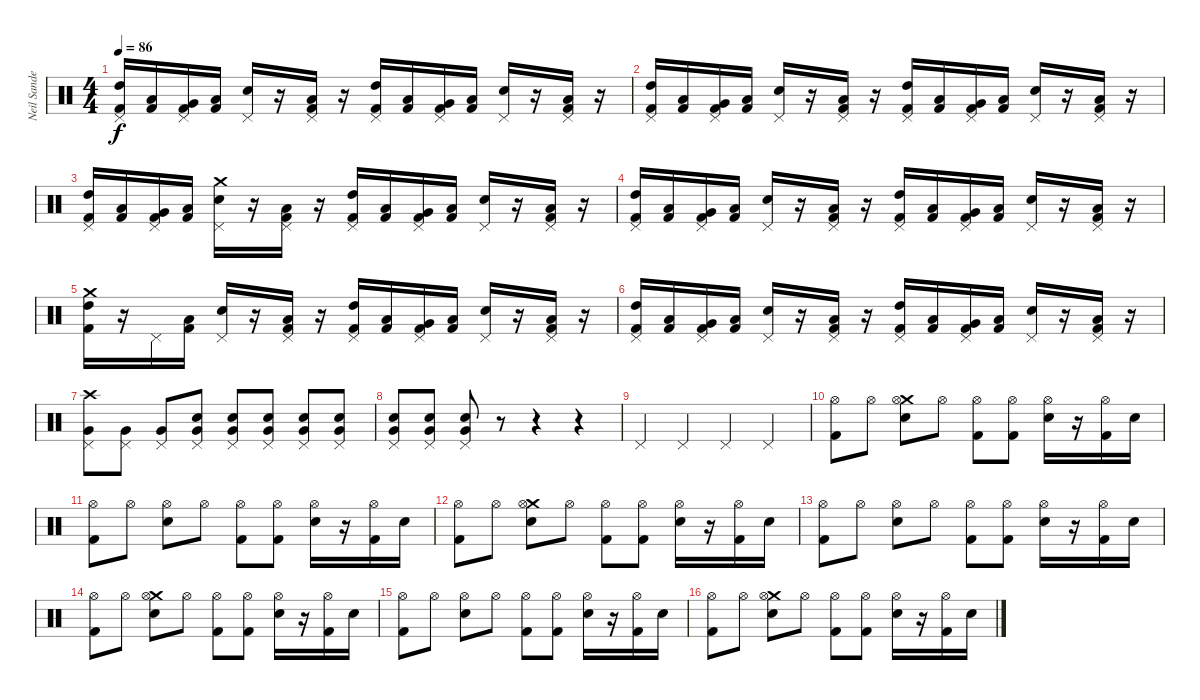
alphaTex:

\track ("Neil Sanderson" "Neil Sande") {instrument percussion}
\staff {score}
\articulation defaults
\ts (4 4)
\tempo 86
\clef neutral
\ks c
("Kick (hit) 2" "High Tom (hit)" "Pedal Hi-Hat (hit)").16{dy f} ("Kick (hit) 2" "Low Tom (hit)").16 ("Kick (hit) 2" "Very Low Tom (hit)" "Pedal Hi-Hat (hit)").16 ("Kick (hit) 2" "Low Floor Tom (hit)").16 ("Snare (hit) 2" "Pedal Hi-Hat (hit)").16 r.16 ("Kick (hit) 2" "Low Floor Tom (hit)" "Pedal Hi-Hat (hit)").16 r.16 ("Kick (hit) 2" "High Tom (hit)" "Pedal Hi-Hat (hit)").16 ("Kick (hit) 2" "Low Tom (hit)").16 ("Kick (hit) 2" "Very Low Tom (hit)" "Pedal Hi-Hat (hit)").16 ("Kick (hit) 2" "Low Floor Tom (hit)").16 ("Snare (hit) 2" "Pedal Hi-Hat (hit)").16 r.16 ("Kick (hit) 2" "Low Floor Tom (hit)" "Pedal Hi-Hat (hit)").16 r.16 |
("Kick (hit) 2" "High Tom (hit)" "Pedal Hi-Hat (hit)").16 ("Kick (hit) 2" "Low Tom (hit)").16 ("Kick (hit) 2" "Very Low Tom (hit)" "Pedal Hi-Hat (hit)").16 ("Kick (hit) 2" "Low Floor Tom (hit)").16 ("Snare (hit) 2" "Pedal Hi-Hat (hit)").16 r.16 ("Kick (hit) 2" "Low Floor Tom (hit)" "Pedal Hi-Hat (hit)").16 r.16 ("Kick (hit) 2" "High Tom (hit)" "Pedal Hi-Hat (hit)").16 ("Kick (hit) 2" "Low Tom (hit)").16 ("Kick (hit) 2" "Very Low Tom (hit)" "Pedal Hi-Hat (hit)").16 ("Kick (hit) 2" "Low Floor Tom (hit)").16 ("Snare (hit) 2" "Pedal Hi-Hat (hit)").16 r.16 ("Kick (hit) 2" "Low Floor Tom (hit)" "Pedal Hi-Hat (hit)").16 r.16 |
("Kick (hit) 2" "High Tom (hit)" "Pedal Hi-Hat (hit)").16 ("Kick (hit) 2" "Low Tom (hit)").16 ("Kick (hit) 2" "Very Low Tom (hit)" "Pedal Hi-Hat (hit)").16 ("Kick (hit) 2" "Low Floor Tom (hit)").16 ("Snare (hit) 2" "Pedal Hi-Hat (hit)" "Crash medium (hit)").16 r.16 ("Kick (hit) 2" "Low Floor Tom (hit)" "Pedal Hi-Hat (hit)").16 r.16 ("Kick (hit) 2" "High Tom (hit)" "Pedal Hi-Hat (hit)").16 ("Kick (hit) 2" "Low Tom (hit)").16 ("Kick (hit) 2" "Very Low Tom (hit)" "Pedal Hi-Hat (hit)").16 ("Kick (hit) 2" "Low Floor Tom (hit)").16 ("Snare (hit) 2" "Pedal Hi-Hat (hit)").16 r.16 ("Kick (hit) 2" "Low Floor Tom (hit)" "Pedal Hi-Hat (hit)").16 r.16 |
("Kick (hit) 2" "High Tom (hit)" "Pedal Hi-Hat (hit)").16 ("Kick (hit) 2" "Low Tom (hit)").16 ("Kick (hit) 2" "Very Low Tom (hit)" "Pedal Hi-Hat (hit)").16 ("Kick (hit) 2" "Low Floor Tom (hit)").16 ("Snare (hit) 2" "Pedal Hi-Hat (hit)").16 r.16 ("Kick (hit) 2" "Low Floor Tom (hit)" "Pedal Hi-Hat (hit)").16 r.16 ("Kick (hit) 2" "High Tom (hit)" "Pedal Hi-Hat (hit)").16 ("Kick (hit) 2" "Low Tom (hit)").16 ("Kick (hit) 2" "Very Low Tom (hit)" "Pedal Hi-Hat (hit)").16 ("Kick (hit) 2" "Low Floor Tom (hit)").16 ("Snare (hit) 2" "Pedal Hi-Hat (hit)").16 r.16 ("Kick (hit) 2" "Low Floor Tom (hit)" "Pedal Hi-Hat (hit)").16 r.16 |
("Kick (hit) 2" "High Tom (hit)" "Crash medium (hit)").16 r.16 "Pedal Hi-Hat (hit)".16 ("Kick (hit) 2" "Low Floor Tom (hit)").16 ("Snare (hit) 2" "Pedal Hi-Hat (hit)").16 r.16 ("Kick (hit) 2" "Low Floor Tom (hit)" "Pedal Hi-Hat (hit)").16 r.16 ("Kick (hit) 2" "High Tom (hit)" "Pedal Hi-Hat (hit)").16 ("Kick (hit) 2" "Low Tom (hit)").16 ("Kick (hit) 2" "Very Low Tom (hit)" "Pedal Hi-Hat (hit)").16 ("Kick (hit) 2" "Low Floor Tom (hit)").16 ("Snare (hit) 2" "Pedal Hi-Hat (hit)").16 r.16 ("Kick (hit) 2" "Low Floor Tom (hit)" "Pedal Hi-Hat (hit)").16 r.16 |
("Kick (hit) 2" "High Tom (hit)" "Pedal Hi-Hat (hit)").16 ("Kick (hit) 2" "Low Tom (hit)").16 ("Kick (hit) 2" "Very Low Tom (hit)" "Pedal Hi-Hat (hit)").16 ("Kick (hit) 2" "Low Floor Tom (hit)").16 ("Snare (hit) 2" "Pedal Hi-Hat (hit)").16 r.16 ("Kick (hit) 2" "Low Floor Tom (hit)" "Pedal Hi-Hat (hit)").16 r.16 ("Kick (hit) 2" "High Tom (hit)" "Pedal Hi-Hat (hit)").16 ("Kick (hit) 2" "Low Tom (hit)").16 ("Kick (hit) 2" "Very Low Tom (hit)" "Pedal Hi-Hat (hit)").16 ("Kick (hit) 2" "Low Floor Tom (hit)").16 ("Snare (hit) 2" "Pedal Hi-Hat (hit)").16 r.16 ("Kick (hit) 2" "Low Floor Tom (hit)" "Pedal Hi-Hat (hit)").16 r.16 |
("Very Low Tom (hit)" "Pedal Hi-Hat (hit)" "Crash high (hit)").8 ("Very Low Tom (hit)" "Pedal Hi-Hat (hit)").8 ("Very Low Tom (hit)" "Pedal Hi-Hat (hit)").8 ("Snare (hit) 2" "Very Low Tom (hit)" "Pedal Hi-Hat (hit)").8 ("Snare (hit) 2" "Very Low Tom (hit)" "Pedal Hi-Hat (hit)").8 ("Snare (hit) 2" "Very Low Tom (hit)" "Pedal Hi-Hat (hit)").8 ("Snare (hit) 2" "Very Low Tom (hit)" "Pedal Hi-Hat (hit)").8 ("Snare (hit) 2" "Very Low Tom (hit)" "Pedal Hi-Hat (hit)").8 |
("Snare (hit) 2" "Very Low Tom (hit)" "Pedal Hi-Hat (hit)").8 ("Snare (hit) 2" "Very Low Tom (hit)" "Pedal Hi-Hat (hit)").8 ("Snare (hit) 2" "Very Low Tom (hit)" "Pedal Hi-Hat (hit)").8 r.8 r.4 r.4 |
"Pedal Hi-Hat (hit)".4 "Pedal Hi-Hat (hit)".4 "Pedal Hi-Hat (hit)".4 "Pedal Hi-Hat (hit)".4 |
("Kick (hit) 2" "Hi-Hat (open)").8 "Hi-Hat (open)".8 ("Snare (hit) 2" "Crash medium (hit)" "Hi-Hat (open)").8 "Hi-Hat (open)".8 ("Kick (hit) 2" "Hi-Hat (open)").8 ("Kick (hit) 2" "Hi-Hat (open)").8 ("Snare (hit) 2" "Hi-Hat (open)").16 r.16 ("Kick (hit) 2" "Hi-Hat (open)").16 "Snare (hit) 2".16 |
("Kick (hit) 2" "Hi-Hat (open)").8 "Hi-Hat (open)".8 ("Snare (hit) 2" "Hi-Hat (open)").8 "Hi-Hat (open)".8 ("Kick (hit) 2" "Hi-Hat (open)").8 ("Kick (hit) 2" "Hi-Hat (open)").8 ("Snare (hit) 2" "Hi-Hat (open)").16 r.16 ("Kick (hit) 2" "Hi-Hat (open)").16 "Snare (hit) 2".16 |
("Kick (hit) 2" "Hi-Hat (open)").8 "Hi-Hat (open)".8 ("Snare (hit) 2" "Crash medium (hit)" "Hi-Hat (open)").8 "Hi-Hat (open)".8 ("Kick (hit) 2" "Hi-Hat (open)").8 ("Kick (hit) 2" "Hi-Hat (open)").8 ("Snare (hit) 2" "Hi-Hat (open)").16 r.16 ("Kick (hit) 2" "Hi-Hat (open)").16 "Snare (hit) 2".16 |
("Kick (hit) 2" "Hi-Hat (open)").8 "Hi-Hat (open)".8 ("Snare (hit) 2" "Hi-Hat (open)").8 "Hi-Hat (open)".8 ("Kick (hit) 2" "Hi-Hat (open)").8 ("Kick (hit) 2" "Hi-Hat (open)").8 ("Snare (hit) 2" "Hi-Hat (open)").16 r.16 ("Kick (hit) 2" "Hi-Hat (open)").16 "Snare (hit) 2".16 |
("Kick (hit) 2" "Hi-Hat (open)").8 "Hi-Hat (open)".8 ("Snare (hit) 2" "Crash medium (hit)" "Hi-Hat (open)").8 "Hi-Hat (open)".8 ("Kick (hit) 2" "Hi-Hat (open)").8 ("Kick (hit) 2" "Hi-Hat (open)").8 ("Snare (hit) 2" "Hi-Hat (open)").16 r.16 ("Kick (hit) 2" "Hi-Hat (open)").16 "Snare (hit) 2".16 |
("Kick (hit) 2" "Hi-Hat (open)").8 "Hi-Hat (open)".8 ("Snare (hit) 2" "Hi-Hat (open)").8 "Hi-Hat (open)".8 ("Kick (hit) 2" "Hi-Hat (open)").8 ("Kick (hit) 2" "Hi-Hat (open)").8 ("Snare (hit) 2" "Hi-Hat (open)").16 r.16 ("Kick (hit) 2" "Hi-Hat (open)").16 "Snare (hit) 2".16 |
("Kick (hit) 2" "Hi-Hat (open)").8 "Hi-Hat (open)".8 ("Snare (hit) 2" "Crash medium (hit)" "Hi-Hat (open)").8 "Hi-Hat (open)".8 ("Kick (hit) 2" "Hi-Hat (open)").8 ("Kick (hit) 2" "Hi-Hat (open)").8 ("Snare (hit) 2" "Hi-Hat (open)").16 r.16 ("Kick (hit) 2" "Hi-Hat (open)").16 "Snare (hit) 2".16
